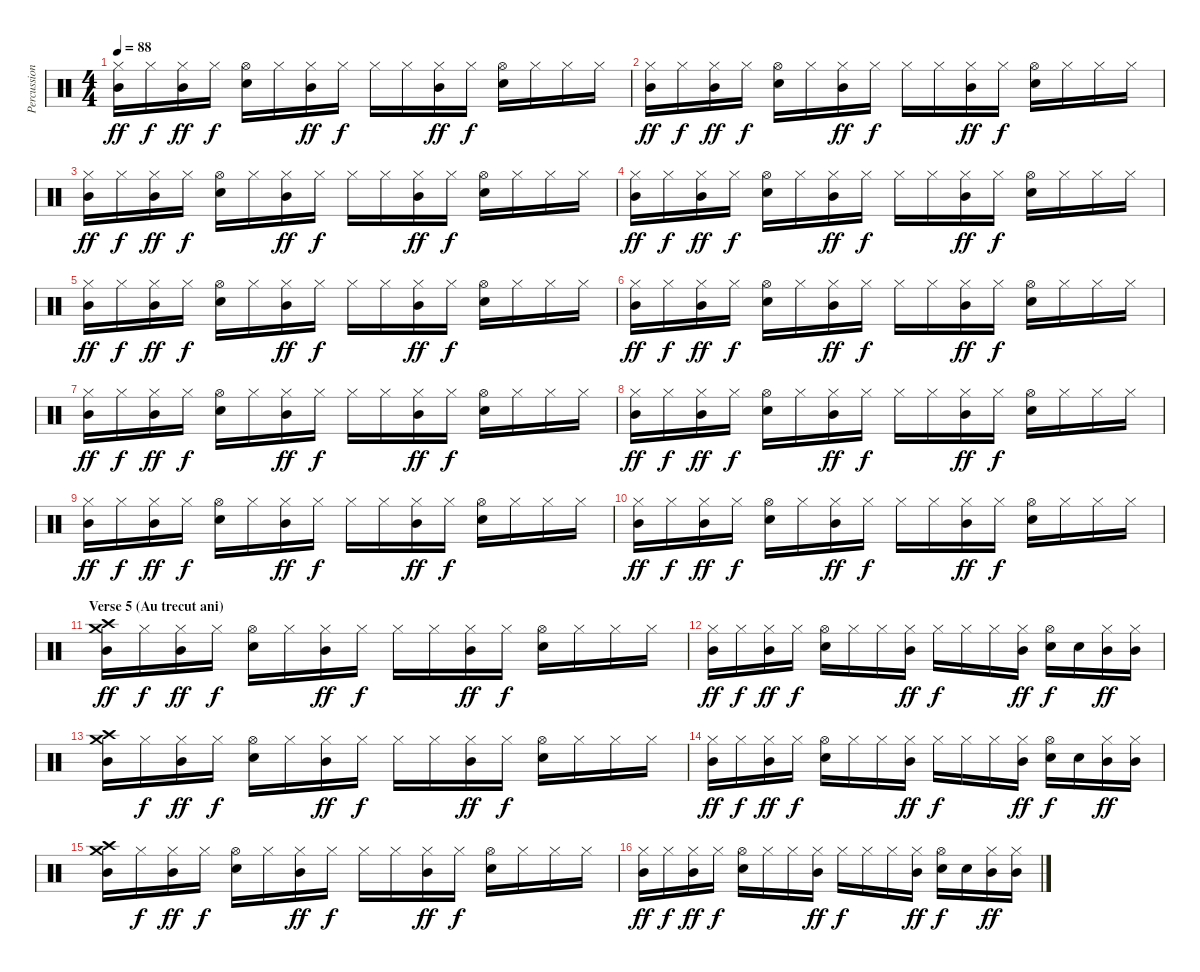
\track ("Percussion" "Percussion") {instrument percussion}
\staff {score}
\articulation defaults
\ts (4 4)
\tempo 88
\clef neutral
\ks c
("Hi-Hat (closed)" "Mid Tom (hit)").16{dy ff} "Hi-Hat (closed)".16{dy f} ("Hi-Hat (closed)" "Mid Tom (hit)").16{dy ff} "Hi-Hat (closed)".16{dy f} ("Hi-Hat (open)" "Electric Snare (hit)").16 "Hi-Hat (closed)".16 ("Hi-Hat (closed)" "Mid Tom (hit)").16{dy ff} "Hi-Hat (closed)".16{dy f} "Hi-Hat (closed)".16 "Hi-Hat (closed)".16 ("Hi-Hat (closed)" "Mid Tom (hit)").16{dy ff} "Hi-Hat (closed)".16{dy f} ("Hi-Hat (open)" "Electric Snare (hit)").16 "Hi-Hat (closed)".16 "Hi-Hat (closed)".16 "Hi-Hat (closed)".16 |
("Hi-Hat (closed)" "Mid Tom (hit)").16{dy ff} "Hi-Hat (closed)".16{dy f} ("Hi-Hat (closed)" "Mid Tom (hit)").16{dy ff} "Hi-Hat (closed)".16{dy f} ("Hi-Hat (open)" "Electric Snare (hit)").16 "Hi-Hat (closed)".16 ("Hi-Hat (closed)" "Mid Tom (hit)").16{dy ff} "Hi-Hat (closed)".16{dy f} "Hi-Hat (closed)".16 "Hi-Hat (closed)".16 ("Hi-Hat (closed)" "Mid Tom (hit)").16{dy ff} "Hi-Hat (closed)".16{dy f} ("Hi-Hat (open)" "Electric Snare (hit)").16 "Hi-Hat (closed)".16 "Hi-Hat (closed)".16 "Hi-Hat (closed)".16 |
("Hi-Hat (closed)" "Mid Tom (hit)").16{dy ff} "Hi-Hat (closed)".16{dy f} ("Hi-Hat (closed)" "Mid Tom (hit)").16{dy ff} "Hi-Hat (closed)".16{dy f} ("Hi-Hat (open)" "Electric Snare (hit)").16 "Hi-Hat (closed)".16 ("Hi-Hat (closed)" "Mid Tom (hit)").16{dy ff} "Hi-Hat (closed)".16{dy f} "Hi-Hat (closed)".16 "Hi-Hat (closed)".16 ("Hi-Hat (closed)" "Mid Tom (hit)").16{dy ff} "Hi-Hat (closed)".16{dy f} ("Hi-Hat (open)" "Electric Snare (hit)").16 "Hi-Hat (closed)".16 "Hi-Hat (closed)".16 "Hi-Hat (closed)".16 |
("Hi-Hat (closed)" "Mid Tom (hit)").16{dy ff} "Hi-Hat (closed)".16{dy f} ("Hi-Hat (closed)" "Mid Tom (hit)").16{dy ff} "Hi-Hat (closed)".16{dy f} ("Hi-Hat (open)" "Electric Snare (hit)").16 "Hi-Hat (closed)".16 ("Hi-Hat (closed)" "Mid Tom (hit)").16{dy ff} "Hi-Hat (closed)".16{dy f} "Hi-Hat (closed)".16 "Hi-Hat (closed)".16 ("Hi-Hat (closed)" "Mid Tom (hit)").16{dy ff} "Hi-Hat (closed)".16{dy f} ("Hi-Hat (open)" "Electric Snare (hit)").16 "Hi-Hat (closed)".16 "Hi-Hat (closed)".16 "Hi-Hat (closed)".16 |
("Hi-Hat (closed)" "Mid Tom (hit)").16{dy ff} "Hi-Hat (closed)".16{dy f} ("Hi-Hat (closed)" "Mid Tom (hit)").16{dy ff} "Hi-Hat (closed)".16{dy f} ("Hi-Hat (open)" "Electric Snare (hit)").16 "Hi-Hat (closed)".16 ("Hi-Hat (closed)" "Mid Tom (hit)").16{dy ff} "Hi-Hat (closed)".16{dy f} "Hi-Hat (closed)".16 "Hi-Hat (closed)".16 ("Hi-Hat (closed)" "Mid Tom (hit)").16{dy ff} "Hi-Hat (closed)".16{dy f} ("Hi-Hat (open)" "Electric Snare (hit)").16 "Hi-Hat (closed)".16 "Hi-Hat (closed)".16 "Hi-Hat (closed)".16 |
("Hi-Hat (closed)" "Mid Tom (hit)").16{dy ff} "Hi-Hat (closed)".16{dy f} ("Hi-Hat (closed)" "Mid Tom (hit)").16{dy ff} "Hi-Hat (closed)".16{dy f} ("Hi-Hat (open)" "Electric Snare (hit)").16 "Hi-Hat (closed)".16 ("Hi-Hat (closed)" "Mid Tom (hit)").16{dy ff} "Hi-Hat (closed)".16{dy f} "Hi-Hat (closed)".16 "Hi-Hat (closed)".16 ("Hi-Hat (closed)" "Mid Tom (hit)").16{dy ff} "Hi-Hat (closed)".16{dy f} ("Hi-Hat (open)" "Electric Snare (hit)").16 "Hi-Hat (closed)".16 "Hi-Hat (closed)".16 "Hi-Hat (closed)".16 |
("Hi-Hat (closed)" "Mid Tom (hit)").16{dy ff} "Hi-Hat (closed)".16{dy f} ("Hi-Hat (closed)" "Mid Tom (hit)").16{dy ff} "Hi-Hat (closed)".16{dy f} ("Hi-Hat (open)" "Electric Snare (hit)").16 "Hi-Hat (closed)".16 ("Hi-Hat (closed)" "Mid Tom (hit)").16{dy ff} "Hi-Hat (closed)".16{dy f} "Hi-Hat (closed)".16 "Hi-Hat (closed)".16 ("Hi-Hat (closed)" "Mid Tom (hit)").16{dy ff} "Hi-Hat (closed)".16{dy f} ("Hi-Hat (open)" "Electric Snare (hit)").16 "Hi-Hat (closed)".16 "Hi-Hat (closed)".16 "Hi-Hat (closed)".16 |
("Hi-Hat (closed)" "Mid Tom (hit)").16{dy ff} "Hi-Hat (closed)".16{dy f} ("Hi-Hat (closed)" "Mid Tom (hit)").16{dy ff} "Hi-Hat (closed)".16{dy f} ("Hi-Hat (open)" "Electric Snare (hit)").16 "Hi-Hat (closed)".16 ("Hi-Hat (closed)" "Mid Tom (hit)").16{dy ff} "Hi-Hat (closed)".16{dy f} "Hi-Hat (closed)".16 "Hi-Hat (closed)".16 ("Hi-Hat (closed)" "Mid Tom (hit)").16{dy ff} "Hi-Hat (closed)".16{dy f} ("Hi-Hat (open)" "Electric Snare (hit)").16 "Hi-Hat (closed)".16 "Hi-Hat (closed)".16 "Hi-Hat (closed)".16 |
("Hi-Hat (closed)" "Mid Tom (hit)").16{dy ff} "Hi-Hat (closed)".16{dy f} ("Hi-Hat (closed)" "Mid Tom (hit)").16{dy ff} "Hi-Hat (closed)".16{dy f} ("Hi-Hat (open)" "Electric Snare (hit)").16 "Hi-Hat (closed)".16 ("Hi-Hat (closed)" "Mid Tom (hit)").16{dy ff} "Hi-Hat (closed)".16{dy f} "Hi-Hat (closed)".16 "Hi-Hat (closed)".16 ("Hi-Hat (closed)" "Mid Tom (hit)").16{dy ff} "Hi-Hat (closed)".16{dy f} ("Hi-Hat (open)" "Electric Snare (hit)").16 "Hi-Hat (closed)".16 "Hi-Hat (closed)".16 "Hi-Hat (closed)".16 |
("Hi-Hat (closed)" "Mid Tom (hit)").16{dy ff} "Hi-Hat (closed)".16{dy f} ("Hi-Hat (closed)" "Mid Tom (hit)").16{dy ff} "Hi-Hat (closed)".16{dy f} ("Hi-Hat (open)" "Electric Snare (hit)").16 "Hi-Hat (closed)".16 ("Hi-Hat (closed)" "Mid Tom (hit)").16{dy ff} "Hi-Hat (closed)".16{dy f} "Hi-Hat (closed)".16 "Hi-Hat (closed)".16 ("Hi-Hat (closed)" "Mid Tom (hit)").16{dy ff} "Hi-Hat (closed)".16{dy f} ("Hi-Hat (open)" "Electric Snare (hit)").16 "Hi-Hat (closed)".16 "Hi-Hat (closed)".16 "Hi-Hat (closed)".16 |
\section ("" "Verse 5 (Au trecut ani)")
("Crash medium (hit)" "Crash high (hit)" "Mid Tom (hit)").16{dy ff} "Hi-Hat (closed)".16{dy f} ("Hi-Hat (closed)" "Mid Tom (hit)").16{dy ff} "Hi-Hat (closed)".16{dy f} ("Hi-Hat (open)" "Electric Snare (hit)").16 "Hi-Hat (closed)".16 ("Hi-Hat (closed)" "Mid Tom (hit)").16{dy ff} "Hi-Hat (closed)".16{dy f} "Hi-Hat (closed)".16 "Hi-Hat (closed)".16 ("Hi-Hat (closed)" "Mid Tom (hit)").16{dy ff} "Hi-Hat (closed)".16{dy f} ("Hi-Hat (open)" "Electric Snare (hit)").16 "Hi-Hat (closed)".16 "Hi-Hat (closed)".16 "Hi-Hat (closed)".16 |
("Hi-Hat (closed)" "Mid Tom (hit)").16{dy ff} "Hi-Hat (closed)".16{dy f} ("Hi-Hat (closed)" "Mid Tom (hit)").16{dy ff} "Hi-Hat (closed)".16{dy f} ("Hi-Hat (open)" "Electric Snare (hit)").16 "Hi-Hat (closed)".16 "Hi-Hat (closed)".16 ("Hi-Hat (closed)" "Mid Tom (hit)").16{dy ff} "Hi-Hat (closed)".16{dy f} "Hi-Hat (closed)".16 "Hi-Hat (closed)".16 ("Hi-Hat (closed)" "Mid Tom (hit)").16{dy ff} ("Hi-Hat (open)" "Electric Snare (hit)").16{dy f} "Electric Snare (hit)".16 ("Hi-Hat (closed)" "Mid Tom (hit)").16{dy ff} ("Hi-Hat (closed)" "Mid Tom (hit)").16 |
("Crash medium (hit)" "Crash high (hit)" "Mid Tom (hit)").16 "Hi-Hat (closed)".16{dy f} ("Hi-Hat (closed)" "Mid Tom (hit)").16{dy ff} "Hi-Hat (closed)".16{dy f} ("Hi-Hat (open)" "Electric Snare (hit)").16 "Hi-Hat (closed)".16 ("Hi-Hat (closed)" "Mid Tom (hit)").16{dy ff} "Hi-Hat (closed)".16{dy f} "Hi-Hat (closed)".16 "Hi-Hat (closed)".16 ("Hi-Hat (closed)" "Mid Tom (hit)").16{dy ff} "Hi-Hat (closed)".16{dy f} ("Hi-Hat (open)" "Electric Snare (hit)").16 "Hi-Hat (closed)".16 "Hi-Hat (closed)".16 "Hi-Hat (closed)".16 |
("Hi-Hat (closed)" "Mid Tom (hit)").16{dy ff} "Hi-Hat (closed)".16{dy f} ("Hi-Hat (closed)" "Mid Tom (hit)").16{dy ff} "Hi-Hat (closed)".16{dy f} ("Hi-Hat (open)" "Electric Snare (hit)").16 "Hi-Hat (closed)".16 "Hi-Hat (closed)".16 ("Hi-Hat (closed)" "Mid Tom (hit)").16{dy ff} "Hi-Hat (closed)".16{dy f} "Hi-Hat (closed)".16 "Hi-Hat (closed)".16 ("Hi-Hat (closed)" "Mid Tom (hit)").16{dy ff} ("Hi-Hat (open)" "Electric Snare (hit)").16{dy f} "Electric Snare (hit)".16 ("Hi-Hat (closed)" "Mid Tom (hit)").16{dy ff} ("Hi-Hat (closed)" "Mid Tom (hit)").16 |
("Crash medium (hit)" "Crash high (hit)" "Mid Tom (hit)").16 "Hi-Hat (closed)".16{dy f} ("Hi-Hat (closed)" "Mid Tom (hit)").16{dy ff} "Hi-Hat (closed)".16{dy f} ("Hi-Hat (open)" "Electric Snare (hit)").16 "Hi-Hat (closed)".16 ("Hi-Hat (closed)" "Mid Tom (hit)").16{dy ff} "Hi-Hat (closed)".16{dy f} "Hi-Hat (closed)".16 "Hi-Hat (closed)".16 ("Hi-Hat (closed)" "Mid Tom (hit)").16{dy ff} "Hi-Hat (closed)".16{dy f} ("Hi-Hat (open)" "Electric Snare (hit)").16 "Hi-Hat (closed)".16 "Hi-Hat (closed)".16 "Hi-Hat (closed)".16 |
("Hi-Hat (closed)" "Mid Tom (hit)").16{dy ff} "Hi-Hat (closed)".16{dy f} ("Hi-Hat (closed)" "Mid Tom (hit)").16{dy ff} "Hi-Hat (closed)".16{dy f} ("Hi-Hat (open)" "Electric Snare (hit)").16 "Hi-Hat (closed)".16 "Hi-Hat (closed)".16 ("Hi-Hat (closed)" "Mid Tom (hit)").16{dy ff} "Hi-Hat (closed)".16{dy f} "Hi-Hat (closed)".16 "Hi-Hat (closed)".16 ("Hi-Hat (closed)" "Mid Tom (hit)").16{dy ff} ("Hi-Hat (open)" "Electric Snare (hit)").16{dy f} "Electric Snare (hit)".16 ("Hi-Hat (closed)" "Mid Tom (hit)").16{dy ff} ("Hi-Hat (closed)" "Mid Tom (hit)").16
